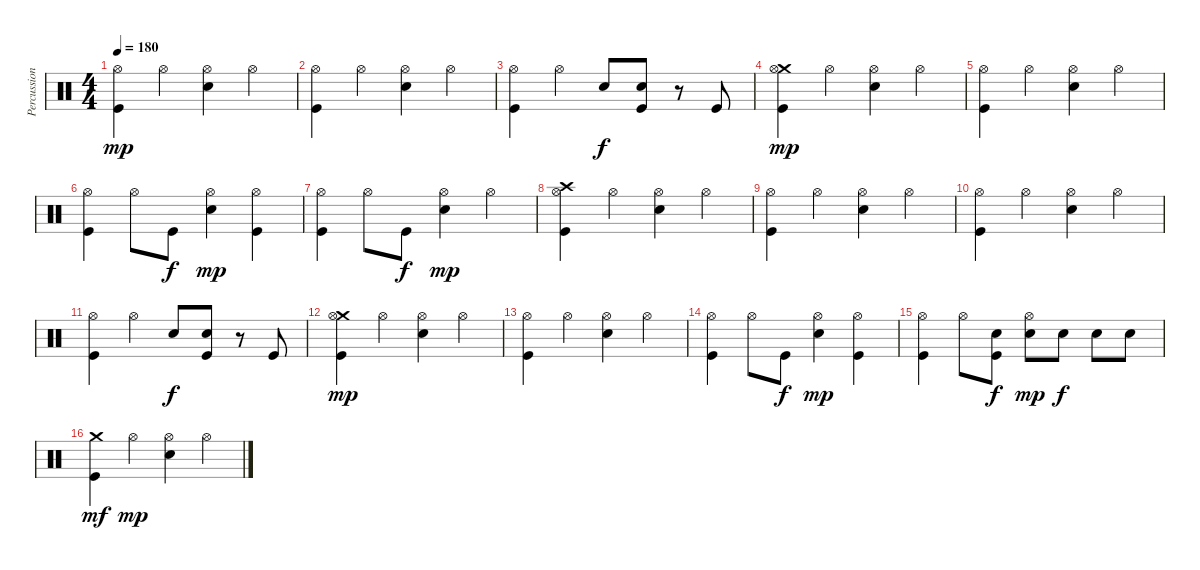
\track ("Percussion" "Percussion") {instrument percussion}
\staff {score}
\articulation defaults
\ts (4 4)
\tempo 180
\clef neutral
\ks c
("Hi-Hat (open)" "Kick (hit)").4{dy mp} "Hi-Hat (open)".4 ("Hi-Hat (open)" "Snare (hit) 2").4 "Hi-Hat (open)".4 |
("Hi-Hat (open)" "Kick (hit)").4 "Hi-Hat (open)".4 ("Hi-Hat (open)" "Snare (hit) 2").4 "Hi-Hat (open)".4 |
("Hi-Hat (open)" "Kick (hit)").4 "Hi-Hat (open)".4 "Snare (hit) 2".8{dy f} ("Snare (hit) 2" "Kick (hit)").8 r.8 "Kick (hit)".8 |
("Crash medium (hit)" "Hi-Hat (open)" "Kick (hit)").4{dy mp} "Hi-Hat (open)".4 ("Hi-Hat (open)" "Snare (hit) 2").4 "Hi-Hat (open)".4 |
("Hi-Hat (open)" "Kick (hit)").4 "Hi-Hat (open)".4 ("Hi-Hat (open)" "Snare (hit) 2").4 "Hi-Hat (open)".4 |
("Hi-Hat (open)" "Kick (hit)").4 "Hi-Hat (open)".8 "Kick (hit)".8{dy f} ("Hi-Hat (open)" "Snare (hit) 2").4{dy mp} ("Hi-Hat (open)" "Kick (hit)").4 |
("Hi-Hat (open)" "Kick (hit)").4 "Hi-Hat (open)".8 "Kick (hit)".8{dy f} ("Hi-Hat (open)" "Snare (hit) 2").4{dy mp} "Hi-Hat (open)".4 |
("Crash high (hit)" "Hi-Hat (open)" "Kick (hit)").4 "Hi-Hat (open)".4 ("Hi-Hat (open)" "Snare (hit) 2").4 "Hi-Hat (open)".4 |
("Hi-Hat (open)" "Kick (hit)").4 "Hi-Hat (open)".4 ("Hi-Hat (open)" "Snare (hit) 2").4 "Hi-Hat (open)".4 |
("Hi-Hat (open)" "Kick (hit)").4 "Hi-Hat (open)".4 ("Hi-Hat (open)" "Snare (hit) 2").4 "Hi-Hat (open)".4 |
("Hi-Hat (open)" "Kick (hit)").4 "Hi-Hat (open)".4 "Snare (hit) 2".8{dy f} ("Snare (hit) 2" "Kick (hit)").8 r.8 "Kick (hit)".8 |
("Crash medium (hit)" "Hi-Hat (open)" "Kick (hit)").4{dy mp} "Hi-Hat (open)".4 ("Hi-Hat (open)" "Snare (hit) 2").4 "Hi-Hat (open)".4 |
("Hi-Hat (open)" "Kick (hit)").4 "Hi-Hat (open)".4 ("Hi-Hat (open)" "Snare (hit) 2").4 "Hi-Hat (open)".4 |
("Hi-Hat (open)" "Kick (hit)").4 "Hi-Hat (open)".8 "Kick (hit)".8{dy f} ("Hi-Hat (open)" "Snare (hit) 2").4{dy mp} ("Hi-Hat (open)" "Kick (hit)").4 |
("Hi-Hat (open)" "Kick (hit)").4 "Hi-Hat (open)".8 ("Snare (hit) 2" "Kick (hit)").8{dy f} ("Hi-Hat (open)" "Snare (hit) 2").8{dy mp} "Snare (hit) 2".8{dy f} "Snare (hit) 2".8 "Snare (hit) 2".8 |
("Crash medium (hit)" "Kick (hit)").4{dy mf} "Hi-Hat (open)".4{dy mp} ("Hi-Hat (open)" "Snare (hit) 2").4 "Hi-Hat (open)".4
